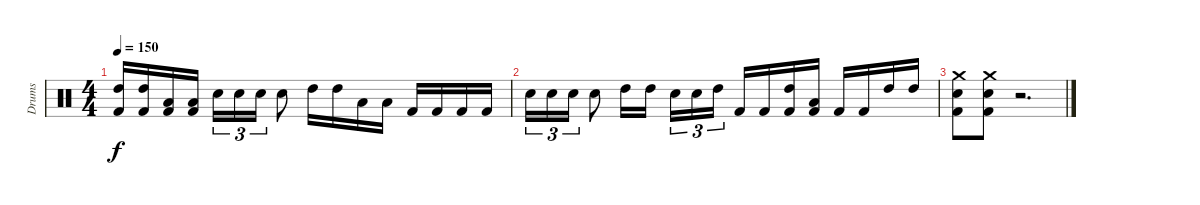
\track ("Drums" "Drums") {instrument percussion}
\staff {score}
\articulation defaults
\ts (4 4)
\tempo 150
\clef neutral
\ks c
("High Tom (hit)" "Kick (hit) 2").16{dy f} ("High Tom (hit)" "Kick (hit) 2").16 ("Low Tom (hit)" "Kick (hit) 2").16 ("Low Tom (hit)" "Kick (hit) 2").16 "Electric Snare (hit)".16{tu (3 2)} "Electric Snare (hit)".16{tu (3 2)} "Electric Snare (hit)".16{tu (3 2)} "Electric Snare (hit)".8 "High Tom (hit)".16 "High Tom (hit)".16 "Low Tom (hit)".16 "Low Tom (hit)".16 "Kick (hit) 2".16 "Kick (hit) 2".16 "Kick (hit) 2".16 "Kick (hit) 2".16 |
"Electric Snare (hit)".16{tu (3 2)} "Electric Snare (hit)".16{tu (3 2)} "Electric Snare (hit)".16{tu (3 2)} "Electric Snare (hit)".8 "High Tom (hit)".16 "High Tom (hit)".16 "Electric Snare (hit)".16{tu (3 2)} "Electric Snare (hit)".16{tu (3 2)} "High Tom (hit)".16{tu (3 2)} "Kick (hit) 2".16 "Kick (hit) 2".16 ("High Tom (hit)" "Kick (hit) 2").16 ("Low Tom (hit)" "Kick (hit) 2").16 "Kick (hit) 2".16 "Kick (hit) 2".16 "High Tom (hit)".16 "High Tom (hit)".16 |
("Crash medium (hit)" "Electric Snare (hit)" "Kick (hit) 2").8 ("Crash medium (hit)" "Electric Snare (hit)" "Kick (hit) 2").8 r.2{d}
